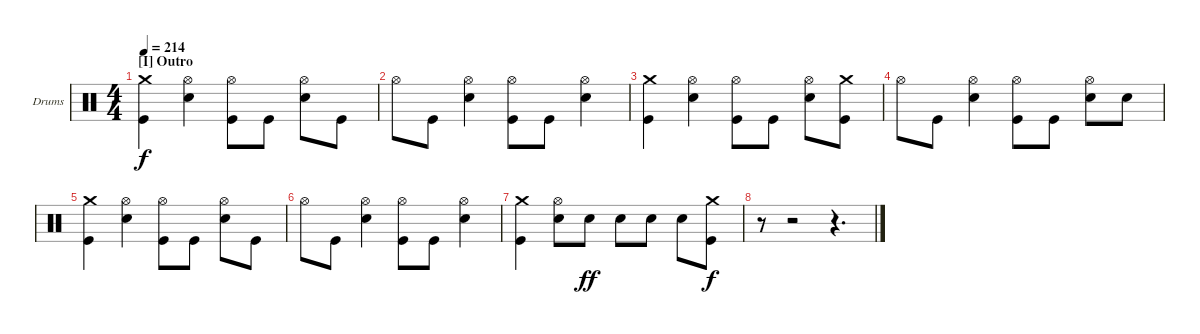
\bracketExtendMode groupsimilarinstruments
\firstSystemTrackNameOrientation horizontal
\otherSystemsTrackNameOrientation horizontal
\track ("Drumkit" "Drums") {instrument percussion}
\staff {score}
\articulation defaults
\ts (4 4)
\section ("I" "Outro")
\tempo 214
\clef neutral
\ks c
("Kick (hit)" "Crash medium (hit)").4{dy f} ("Snare (hit) 2" "Hi-Hat (open)").4 ("Kick (hit)" "Hi-Hat (open)").8 "Kick (hit)".8 ("Snare (hit) 2" "Hi-Hat (open)").8 "Kick (hit)".8 |
"Hi-Hat (open)".8 "Kick (hit)".8 ("Snare (hit) 2" "Hi-Hat (open)").4 ("Kick (hit)" "Hi-Hat (open)").8 "Kick (hit)".8 ("Snare (hit) 2" "Hi-Hat (open)").4 |
("Kick (hit)" "Crash medium (hit)").4 ("Snare (hit) 2" "Hi-Hat (open)").4 ("Kick (hit)" "Hi-Hat (open)").8 "Kick (hit)".8 ("Snare (hit) 2" "Hi-Hat (open)").8 ("Kick (hit)" "Crash medium (hit)").8 |
"Hi-Hat (open)".8 "Kick (hit)".8 ("Snare (hit) 2" "Hi-Hat (open)").4 ("Kick (hit)" "Hi-Hat (open)").8 "Kick (hit)".8 ("Snare (hit) 2" "Hi-Hat (open)").8 "Snare (hit) 2".8 |
("Kick (hit)" "Crash medium (hit)").4 ("Snare (hit) 2" "Hi-Hat (open)").4 ("Kick (hit)" "Hi-Hat (open)").8 "Kick (hit)".8 ("Snare (hit) 2" "Hi-Hat (open)").8 "Kick (hit)".8 |
"Hi-Hat (open)".8 "Kick (hit)".8 ("Snare (hit) 2" "Hi-Hat (open)").4 ("Kick (hit)" "Hi-Hat (open)").8 "Kick (hit)".8 ("Snare (hit) 2" "Hi-Hat (open)").4 |
("Kick (hit)" "Crash medium (hit)").4 ("Hi-Hat (open)" "Snare (hit) 2").8 "Snare (hit) 2".8{dy ff} "Snare (hit) 2".8 "Snare (hit) 2".8 "Snare (hit) 2".8 ("Kick (hit)" "Crash medium (hit)").8{dy f} |
r.8 r.2 r.4{d}
